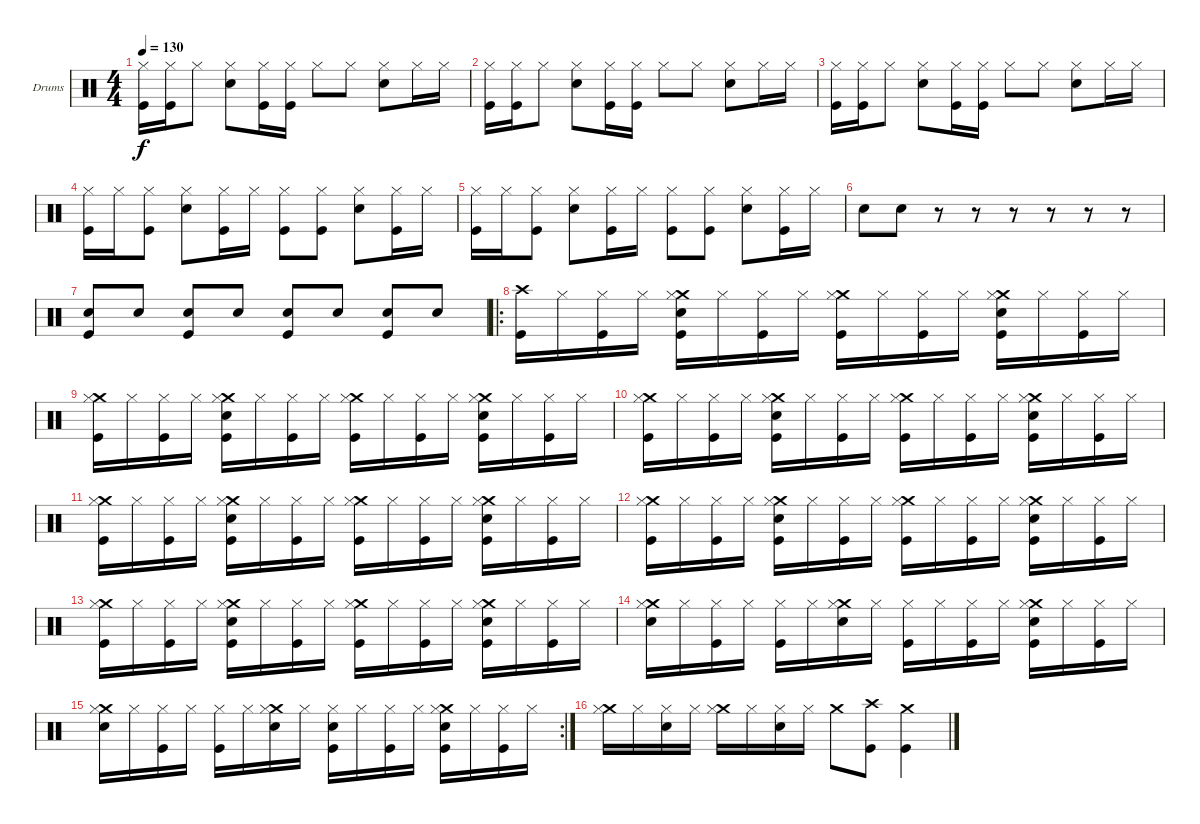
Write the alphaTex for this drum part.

\bracketExtendMode groupsimilarinstruments
\firstSystemTrackNameOrientation horizontal
\otherSystemsTrackNameOrientation horizontal
\track ("Drumkit" "Drums") {instrument percussion}
\staff {score}
\articulation defaults
\ts (4 4)
\tempo 130
\clef neutral
\ks c
("Hi-Hat (closed)" "Kick (hit)").16{dy f} ("Hi-Hat (closed)" "Kick (hit)").16 "Hi-Hat (closed)".8 ("Hi-Hat (closed)" "Snare (hit) 2").8 ("Hi-Hat (closed)" "Kick (hit)").16 ("Hi-Hat (closed)" "Kick (hit)").16 "Hi-Hat (closed)".8 "Hi-Hat (closed)".8 ("Hi-Hat (closed)" "Snare (hit) 2").8 "Hi-Hat (closed)".16 "Hi-Hat (closed)".16 |
("Hi-Hat (closed)" "Kick (hit)").16 ("Hi-Hat (closed)" "Kick (hit)").16 "Hi-Hat (closed)".8 ("Hi-Hat (closed)" "Snare (hit) 2").8 ("Hi-Hat (closed)" "Kick (hit)").16 ("Hi-Hat (closed)" "Kick (hit)").16 "Hi-Hat (closed)".8 "Hi-Hat (closed)".8 ("Hi-Hat (closed)" "Snare (hit) 2").8 "Hi-Hat (closed)".16 "Hi-Hat (closed)".16 |
("Hi-Hat (closed)" "Kick (hit)").16 ("Hi-Hat (closed)" "Kick (hit)").16 "Hi-Hat (closed)".8 ("Hi-Hat (closed)" "Snare (hit) 2").8 ("Hi-Hat (closed)" "Kick (hit)").16 ("Hi-Hat (closed)" "Kick (hit)").16 "Hi-Hat (closed)".8 "Hi-Hat (closed)".8 ("Hi-Hat (closed)" "Snare (hit) 2").8 "Hi-Hat (closed)".16 "Hi-Hat (closed)".16 |
("Hi-Hat (closed)" "Kick (hit)").16 "Hi-Hat (closed)".16 ("Hi-Hat (closed)" "Kick (hit)").8 ("Hi-Hat (closed)" "Snare (hit) 2").8 ("Hi-Hat (closed)" "Kick (hit)").16 "Hi-Hat (closed)".16 ("Hi-Hat (closed)" "Kick (hit)").8 ("Hi-Hat (closed)" "Kick (hit)").8 ("Hi-Hat (closed)" "Snare (hit) 2").8 ("Hi-Hat (closed)" "Kick (hit)").16 "Hi-Hat (closed)".16 |
("Hi-Hat (closed)" "Kick (hit)").16 "Hi-Hat (closed)".16 ("Hi-Hat (closed)" "Kick (hit)").8 ("Hi-Hat (closed)" "Snare (hit) 2").8 ("Hi-Hat (closed)" "Kick (hit)").16 "Hi-Hat (closed)".16 ("Hi-Hat (closed)" "Kick (hit)").8 ("Hi-Hat (closed)" "Kick (hit)").8 ("Hi-Hat (closed)" "Snare (hit) 2").8 ("Hi-Hat (closed)" "Kick (hit)").16 "Hi-Hat (closed)".16 |
"Snare (hit) 2".8 "Snare (hit) 2".8 r.8 r.8 r.8 r.8 r.8 r.8 |
("Snare (hit) 2" "Kick (hit)").8 "Snare (hit) 2".8 ("Snare (hit) 2" "Kick (hit)").8 "Snare (hit) 2".8 ("Snare (hit) 2" "Kick (hit)").8 "Snare (hit) 2".8 ("Snare (hit) 2" "Kick (hit)").8 "Snare (hit) 2".8 |
\ro
("Crash high (hit)" "Kick (hit)").16 "Hi-Hat (closed)".16 ("Hi-Hat (closed)" "Kick (hit)").16 "Hi-Hat (closed)".16 ("Crash medium (hit)" "Hi-Hat (closed)" "Snare (hit) 2" "Kick (hit)").16 "Hi-Hat (closed)".16 ("Hi-Hat (closed)" "Kick (hit)").16 "Hi-Hat (closed)".16 ("Crash medium (hit)" "Hi-Hat (closed)" "Kick (hit)").16 "Hi-Hat (closed)".16 ("Hi-Hat (closed)" "Kick (hit)").16 "Hi-Hat (closed)".16 ("Crash medium (hit)" "Hi-Hat (closed)" "Snare (hit) 2" "Kick (hit)").16 "Hi-Hat (closed)".16 ("Hi-Hat (closed)" "Kick (hit)").16 "Hi-Hat (closed)".16 |
("Crash medium (hit)" "Hi-Hat (closed)" "Kick (hit)").16 "Hi-Hat (closed)".16 ("Hi-Hat (closed)" "Kick (hit)").16 "Hi-Hat (closed)".16 ("Crash medium (hit)" "Hi-Hat (closed)" "Snare (hit) 2" "Kick (hit)").16 "Hi-Hat (closed)".16 ("Hi-Hat (closed)" "Kick (hit)").16 "Hi-Hat (closed)".16 ("Crash medium (hit)" "Hi-Hat (closed)" "Kick (hit)").16 "Hi-Hat (closed)".16 ("Hi-Hat (closed)" "Kick (hit)").16 "Hi-Hat (closed)".16 ("Crash medium (hit)" "Hi-Hat (closed)" "Snare (hit) 2" "Kick (hit)").16 "Hi-Hat (closed)".16 ("Hi-Hat (closed)" "Kick (hit)").16 "Hi-Hat (closed)".16 |
("Crash medium (hit)" "Hi-Hat (closed)" "Kick (hit)").16 "Hi-Hat (closed)".16 ("Hi-Hat (closed)" "Kick (hit)").16 "Hi-Hat (closed)".16 ("Crash medium (hit)" "Hi-Hat (closed)" "Snare (hit) 2" "Kick (hit)").16 "Hi-Hat (closed)".16 ("Hi-Hat (closed)" "Kick (hit)").16 "Hi-Hat (closed)".16 ("Crash medium (hit)" "Hi-Hat (closed)" "Kick (hit)").16 "Hi-Hat (closed)".16 ("Hi-Hat (closed)" "Kick (hit)").16 "Hi-Hat (closed)".16 ("Crash medium (hit)" "Hi-Hat (closed)" "Snare (hit) 2" "Kick (hit)").16 "Hi-Hat (closed)".16 ("Hi-Hat (closed)" "Kick (hit)").16 "Hi-Hat (closed)".16 |
("Crash medium (hit)" "Hi-Hat (closed)" "Kick (hit)").16 "Hi-Hat (closed)".16 ("Hi-Hat (closed)" "Kick (hit)").16 "Hi-Hat (closed)".16 ("Crash medium (hit)" "Hi-Hat (closed)" "Snare (hit) 2" "Kick (hit)").16 "Hi-Hat (closed)".16 ("Hi-Hat (closed)" "Kick (hit)").16 "Hi-Hat (closed)".16 ("Crash medium (hit)" "Hi-Hat (closed)" "Kick (hit)").16 "Hi-Hat (closed)".16 ("Hi-Hat (closed)" "Kick (hit)").16 "Hi-Hat (closed)".16 ("Crash medium (hit)" "Hi-Hat (closed)" "Snare (hit) 2" "Kick (hit)").16 "Hi-Hat (closed)".16 ("Hi-Hat (closed)" "Kick (hit)").16 "Hi-Hat (closed)".16 |
("Crash medium (hit)" "Hi-Hat (closed)" "Kick (hit)").16 "Hi-Hat (closed)".16 ("Hi-Hat (closed)" "Kick (hit)").16 "Hi-Hat (closed)".16 ("Crash medium (hit)" "Hi-Hat (closed)" "Snare (hit) 2" "Kick (hit)").16 "Hi-Hat (closed)".16 ("Hi-Hat (closed)" "Kick (hit)").16 "Hi-Hat (closed)".16 ("Crash medium (hit)" "Hi-Hat (closed)" "Kick (hit)").16 "Hi-Hat (closed)".16 ("Hi-Hat (closed)" "Kick (hit)").16 "Hi-Hat (closed)".16 ("Crash medium (hit)" "Hi-Hat (closed)" "Snare (hit) 2" "Kick (hit)").16 "Hi-Hat (closed)".16 ("Hi-Hat (closed)" "Kick (hit)").16 "Hi-Hat (closed)".16 |
("Crash medium (hit)" "Hi-Hat (closed)" "Kick (hit)").16 "Hi-Hat (closed)".16 ("Hi-Hat (closed)" "Kick (hit)").16 "Hi-Hat (closed)".16 ("Crash medium (hit)" "Hi-Hat (closed)" "Snare (hit) 2" "Kick (hit)").16 "Hi-Hat (closed)".16 ("Hi-Hat (closed)" "Kick (hit)").16 "Hi-Hat (closed)".16 ("Crash medium (hit)" "Hi-Hat (closed)" "Kick (hit)").16 "Hi-Hat (closed)".16 ("Hi-Hat (closed)" "Kick (hit)").16 "Hi-Hat (closed)".16 ("Crash medium (hit)" "Hi-Hat (closed)" "Snare (hit) 2" "Kick (hit)").16 "Hi-Hat (closed)".16 ("Hi-Hat (closed)" "Kick (hit)").16 "Hi-Hat (closed)".16 |
("Crash medium (hit)" "Hi-Hat (closed)" "Snare (hit) 2").16 "Hi-Hat (closed)".16 ("Hi-Hat (closed)" "Kick (hit)").16 "Hi-Hat (closed)".16 ("Hi-Hat (closed)" "Kick (hit)").16 "Hi-Hat (closed)".16 ("Crash medium (hit)" "Hi-Hat (closed)" "Snare (hit) 2").16 "Hi-Hat (closed)".16 ("Hi-Hat (closed)" "Kick (hit)").16 "Hi-Hat (closed)".16 ("Hi-Hat (closed)" "Kick (hit)").16 "Hi-Hat (closed)".16 ("Crash medium (hit)" "Hi-Hat (closed)" "Snare (hit) 2" "Kick (hit)").16 "Hi-Hat (closed)".16 ("Hi-Hat (closed)" "Kick (hit)").16 "Hi-Hat (closed)".16 |
\rc 2
("Crash medium (hit)" "Hi-Hat (closed)" "Snare (hit) 2").16 "Hi-Hat (closed)".16 ("Hi-Hat (closed)" "Kick (hit)").16 "Hi-Hat (closed)".16 ("Hi-Hat (closed)" "Kick (hit)").16 "Hi-Hat (closed)".16 ("Crash medium (hit)" "Hi-Hat (closed)" "Snare (hit) 2").16 "Hi-Hat (closed)".16 ("Hi-Hat (closed)" "Snare (hit) 2" "Kick (hit)").16 "Hi-Hat (closed)".16 ("Hi-Hat (closed)" "Kick (hit)").16 "Hi-Hat (closed)".16 ("Crash medium (hit)" "Hi-Hat (closed)" "Snare (hit) 2" "Kick (hit)").16 "Hi-Hat (closed)".16 ("Hi-Hat (closed)" "Kick (hit)").16 "Hi-Hat (closed)".16 |
("Crash medium (hit)" "Hi-Hat (closed)").16 "Hi-Hat (closed)".16 ("Hi-Hat (closed)" "Snare (hit) 2").16 "Hi-Hat (closed)".16 ("Crash medium (hit)" "Hi-Hat (closed)").16 "Hi-Hat (closed)".16 ("Hi-Hat (closed)" "Snare (hit) 2").16 "Hi-Hat (closed)".16 "Crash medium (hit)".8 ("Crash high (hit)" "Kick (hit)").8 ("Crash medium (hit)" "Kick (hit)").4
